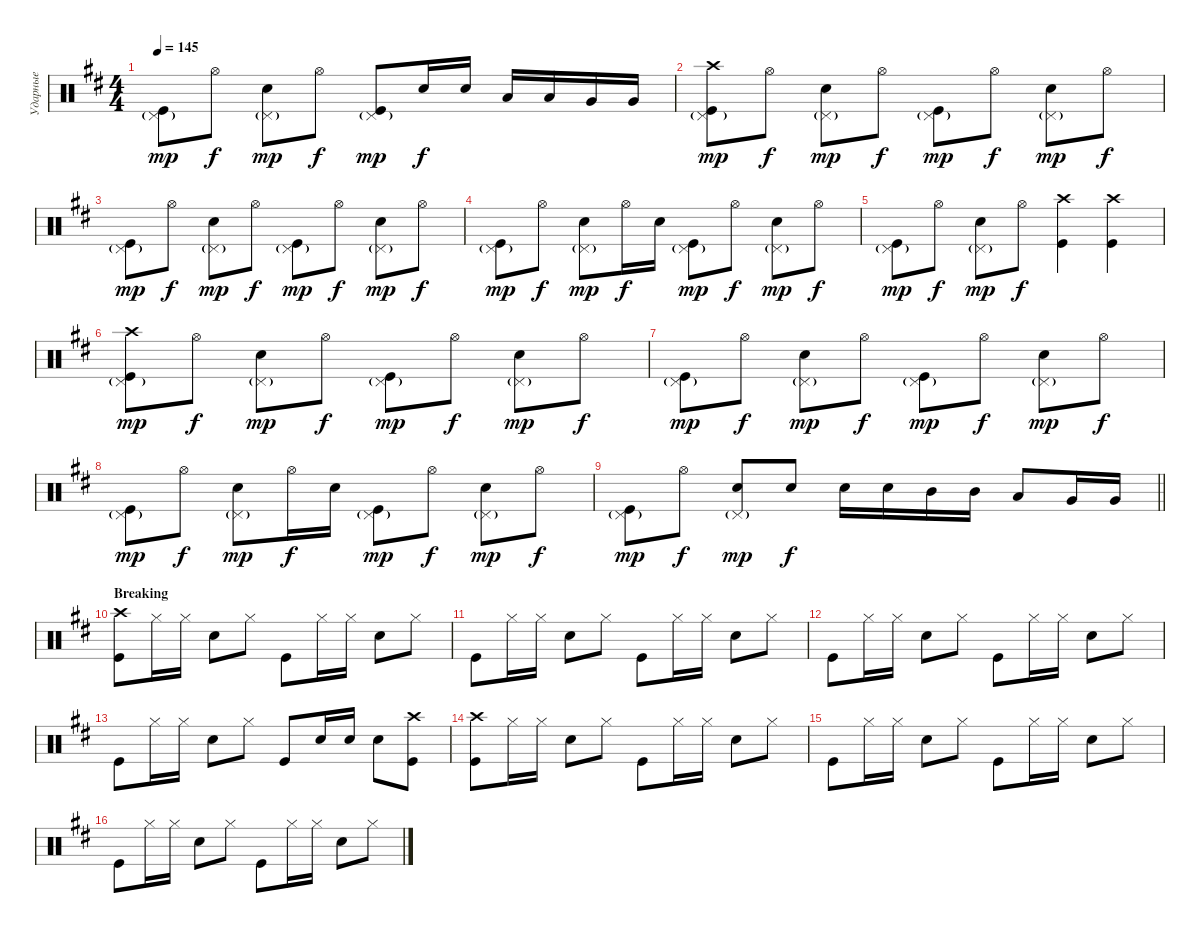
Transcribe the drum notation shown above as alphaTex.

\track ("Ударные" "Ударные") {instrument percussion}
\staff {score}
\articulation defaults
\ts (4 4)
\tempo 145
\clef neutral
\ks bminor
("Pedal Hi-Hat (hit)"{g} "Kick (hit)").8{dy mp} "Hi-Hat (open)".8{dy f} ("Snare (hit) 2" "Pedal Hi-Hat (hit)"{g}).8{dy mp} "Hi-Hat (open)".8{dy f} ("Pedal Hi-Hat (hit)"{g} "Kick (hit)").8{dy mp} "Snare (hit) 2".16{dy f} "Snare (hit) 2".16 "Low Tom (hit)".16 "Low Tom (hit)".16 "Very Low Tom (hit)".16 "Very Low Tom (hit)".16 |
("Pedal Hi-Hat (hit)"{g} "Kick (hit)" "Crash high (hit)").8{dy mp} "Hi-Hat (open)".8{dy f} ("Snare (hit) 2" "Pedal Hi-Hat (hit)"{g}).8{dy mp} "Hi-Hat (open)".8{dy f} ("Pedal Hi-Hat (hit)"{g} "Kick (hit)").8{dy mp} "Hi-Hat (open)".8{dy f} ("Snare (hit) 2" "Pedal Hi-Hat (hit)"{g}).8{dy mp} "Hi-Hat (open)".8{dy f} |
("Pedal Hi-Hat (hit)"{g} "Kick (hit)").8{dy mp} "Hi-Hat (open)".8{dy f} ("Snare (hit) 2" "Pedal Hi-Hat (hit)"{g}).8{dy mp} "Hi-Hat (open)".8{dy f} ("Pedal Hi-Hat (hit)"{g} "Kick (hit)").8{dy mp} "Hi-Hat (open)".8{dy f} ("Snare (hit) 2" "Pedal Hi-Hat (hit)"{g}).8{dy mp} "Hi-Hat (open)".8{dy f} |
("Pedal Hi-Hat (hit)"{g} "Kick (hit)").8{dy mp} "Hi-Hat (open)".8{dy f} ("Snare (hit) 2" "Pedal Hi-Hat (hit)"{g}).8{dy mp} "Hi-Hat (open)".16{dy f} "Snare (hit) 2".16 ("Pedal Hi-Hat (hit)"{g} "Kick (hit)").8{dy mp} "Hi-Hat (open)".8{dy f} ("Snare (hit) 2" "Pedal Hi-Hat (hit)"{g}).8{dy mp} "Hi-Hat (open)".8{dy f} |
("Pedal Hi-Hat (hit)"{g} "Kick (hit)").8{dy mp} "Hi-Hat (open)".8{dy f} ("Snare (hit) 2" "Pedal Hi-Hat (hit)"{g}).8{dy mp} "Hi-Hat (open)".8{dy f} ("Kick (hit)" "Crash high (hit)").4 ("Kick (hit)" "Crash high (hit)").4 |
("Pedal Hi-Hat (hit)"{g} "Kick (hit)" "Crash high (hit)").8{dy mp} "Hi-Hat (open)".8{dy f} ("Snare (hit) 2" "Pedal Hi-Hat (hit)"{g}).8{dy mp} "Hi-Hat (open)".8{dy f} ("Pedal Hi-Hat (hit)"{g} "Kick (hit)").8{dy mp} "Hi-Hat (open)".8{dy f} ("Snare (hit) 2" "Pedal Hi-Hat (hit)"{g}).8{dy mp} "Hi-Hat (open)".8{dy f} |
("Pedal Hi-Hat (hit)"{g} "Kick (hit)").8{dy mp} "Hi-Hat (open)".8{dy f} ("Snare (hit) 2" "Pedal Hi-Hat (hit)"{g}).8{dy mp} "Hi-Hat (open)".8{dy f} ("Pedal Hi-Hat (hit)"{g} "Kick (hit)").8{dy mp} "Hi-Hat (open)".8{dy f} ("Snare (hit) 2" "Pedal Hi-Hat (hit)"{g}).8{dy mp} "Hi-Hat (open)".8{dy f} |
("Pedal Hi-Hat (hit)"{g} "Kick (hit)").8{dy mp} "Hi-Hat (open)".8{dy f} ("Snare (hit) 2" "Pedal Hi-Hat (hit)"{g}).8{dy mp} "Hi-Hat (open)".16{dy f} "Snare (hit) 2".16 ("Pedal Hi-Hat (hit)"{g} "Kick (hit)").8{dy mp} "Hi-Hat (open)".8{dy f} ("Snare (hit) 2" "Pedal Hi-Hat (hit)"{g}).8{dy mp} "Hi-Hat (open)".8{dy f} |
\barLineRight lightlight
("Pedal Hi-Hat (hit)"{g} "Kick (hit)").8{dy mp} "Hi-Hat (open)".8{dy f} ("Snare (hit) 2" "Pedal Hi-Hat (hit)"{g}).8{dy mp} "Snare (hit) 2".8{dy f} "Snare (hit) 2".16 "Snare (hit) 2".16 "Mid Tom (hit)".16 "Mid Tom (hit)".16 "Low Tom (hit)".8 "Very Low Tom (hit)".16 "Very Low Tom (hit)".16 |
\section ("" "Breaking")
("Kick (hit)" "Crash high (hit)").8 "Hi-Hat (closed)".16 "Hi-Hat (closed)".16 "Snare (hit) 2".8 "Hi-Hat (closed)".8 "Kick (hit)".8 "Hi-Hat (closed)".16 "Hi-Hat (closed)".16 "Snare (hit) 2".8 "Hi-Hat (closed)".8 |
"Kick (hit)".8 "Hi-Hat (closed)".16 "Hi-Hat (closed)".16 "Snare (hit) 2".8 "Hi-Hat (closed)".8 "Kick (hit)".8 "Hi-Hat (closed)".16 "Hi-Hat (closed)".16 "Snare (hit) 2".8 "Hi-Hat (closed)".8 |
"Kick (hit)".8 "Hi-Hat (closed)".16 "Hi-Hat (closed)".16 "Snare (hit) 2".8 "Hi-Hat (closed)".8 "Kick (hit)".8 "Hi-Hat (closed)".16 "Hi-Hat (closed)".16 "Snare (hit) 2".8 "Hi-Hat (closed)".8 |
"Kick (hit)".8 "Hi-Hat (closed)".16 "Hi-Hat (closed)".16 "Snare (hit) 2".8 "Hi-Hat (closed)".8 "Kick (hit)".8 "Snare (hit) 2".16 "Snare (hit) 2".16 "Snare (hit) 2".8 ("Kick (hit)" "Crash high (hit)").8 |
("Kick (hit)" "Crash high (hit)").8 "Hi-Hat (closed)".16 "Hi-Hat (closed)".16 "Snare (hit) 2".8 "Hi-Hat (closed)".8 "Kick (hit)".8 "Hi-Hat (closed)".16 "Hi-Hat (closed)".16 "Snare (hit) 2".8 "Hi-Hat (closed)".8 |
"Kick (hit)".8 "Hi-Hat (closed)".16 "Hi-Hat (closed)".16 "Snare (hit) 2".8 "Hi-Hat (closed)".8 "Kick (hit)".8 "Hi-Hat (closed)".16 "Hi-Hat (closed)".16 "Snare (hit) 2".8 "Hi-Hat (closed)".8 |
"Kick (hit)".8 "Hi-Hat (closed)".16 "Hi-Hat (closed)".16 "Snare (hit) 2".8 "Hi-Hat (closed)".8 "Kick (hit)".8 "Hi-Hat (closed)".16 "Hi-Hat (closed)".16 "Snare (hit) 2".8 "Hi-Hat (closed)".8
